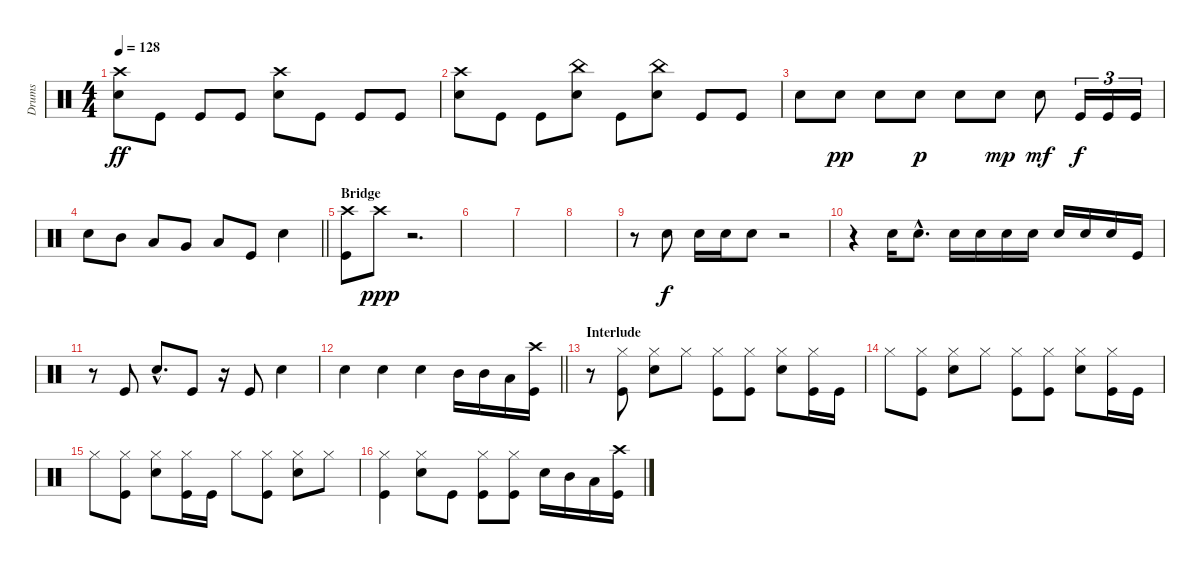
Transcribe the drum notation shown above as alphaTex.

\track ("Drums" "Drums") {instrument percussion}
\staff {score}
\articulation defaults
\ts (4 4)
\tempo 128
\clef neutral
\ks c
("Crash high (hit)" "Snare (hit) 2").8{dy ff} "Kick (hit)".8 "Kick (hit)".8 "Kick (hit)".8 ("Crash high (hit)" "Snare (hit) 2").8 "Kick (hit)".8 "Kick (hit)".8 "Kick (hit)".8 |
("Crash high (hit)" "Snare (hit) 2").8 "Kick (hit)".8 "Kick (hit)".8 ("China (hit)" "Snare (hit) 2").8 "Kick (hit)".8 ("China (hit)" "Snare (hit) 2").8 "Kick (hit)".8 "Kick (hit)".8 |
"Snare (hit) 2".8 "Snare (hit) 2".8{dy pp} "Snare (hit) 2".8 "Snare (hit) 2".8{dy p} "Snare (hit) 2".8 "Snare (hit) 2".8{dy mp} "Snare (hit) 2".8{dy mf} "Kick (hit)".16{tu (3 2) dy f} "Kick (hit)".16{tu (3 2)} "Kick (hit)".16{tu (3 2)} |
\barLineRight lightlight "Snare (hit) 2".8 "Mid Tom (hit)".8 "Low Tom (hit)".8 "Very Low Tom (hit)".8 "Low Floor Tom (hit)".8 "Kick (hit)".8 "Snare (hit) 2".4
|
\section ("" "Bridge")
("Crash high (hit)" "Kick (hit)").8 "Crash high (hit)".8{dy ppp} r.2{d} |
|
|
|
r.8 "Snare (hit) 2".8{dy f} "Snare (hit) 2".16 "Snare (hit) 2".16 "Snare (hit) 2".8 r.2 |
r.4 "Snare (hit) 2".16 "Snare (hit) 2"{hac}.8{d} "Snare (hit) 2".16 "Snare (hit) 2".16 "Snare (hit) 2".16 "Snare (hit) 2".16 "Snare (hit) 2".16 "Snare (hit) 2".16 "Snare (hit) 2".16 "Kick (hit)".16 |
r.8 "Kick (hit)".8 "Snare (hit) 2"{hac}.8{d} "Kick (hit)".8 r.16 "Kick (hit)".8 "Snare (hit) 2".4 |
\barLineRight lightlight "Snare (hit) 2".4 "Snare (hit) 2".4 "Snare (hit) 2".4 "Mid Tom (hit)".16 "Mid Tom (hit)".16 "Low Tom (hit)".16
("Crash high (hit)" "Kick (hit)").16 |
\section ("" "Interlude")
r.8 ("Hi-Hat (closed)" "Kick (hit)").8 ("Hi-Hat (closed)" "Snare (hit) 2").8 "Hi-Hat (closed)".8 ("Hi-Hat (closed)" "Kick (hit)").8 ("Hi-Hat (closed)" "Kick (hit)").8 ("Hi-Hat (closed)" "Snare (hit) 2").8 ("Hi-Hat (closed)" "Kick (hit)").16 "Kick (hit)".16 |
"Hi-Hat (closed)".8 ("Hi-Hat (closed)" "Kick (hit)").8 ("Hi-Hat (closed)" "Snare (hit) 2").8 "Hi-Hat (closed)".8 ("Hi-Hat (closed)" "Kick (hit)").8 ("Hi-Hat (closed)" "Kick (hit)").8 ("Hi-Hat (closed)" "Snare (hit) 2").8 ("Hi-Hat (closed)" "Kick (hit)").16 "Kick (hit)".16 |
"Hi-Hat (closed)".8 ("Hi-Hat (closed)" "Kick (hit)").8 ("Hi-Hat (closed)" "Snare (hit) 2").8 ("Hi-Hat (closed)" "Kick (hit)").16 "Kick (hit)".16 "Hi-Hat (closed)".8 ("Hi-Hat (closed)" "Kick (hit)").8 ("Hi-Hat (closed)" "Snare (hit) 2").8 "Hi-Hat (closed)".8 |
("Hi-Hat (closed)" "Kick (hit)").4 ("Hi-Hat (closed)" "Snare (hit) 2").8 "Kick (hit)".8 ("Hi-Hat (closed)" "Kick (hit)").8 ("Hi-Hat (closed)" "Kick (hit)").8 "Snare (hit) 2".16 "Mid Tom (hit)".16 "Low Tom (hit)".16 ("Crash high (hit)" "Kick (hit)").16
